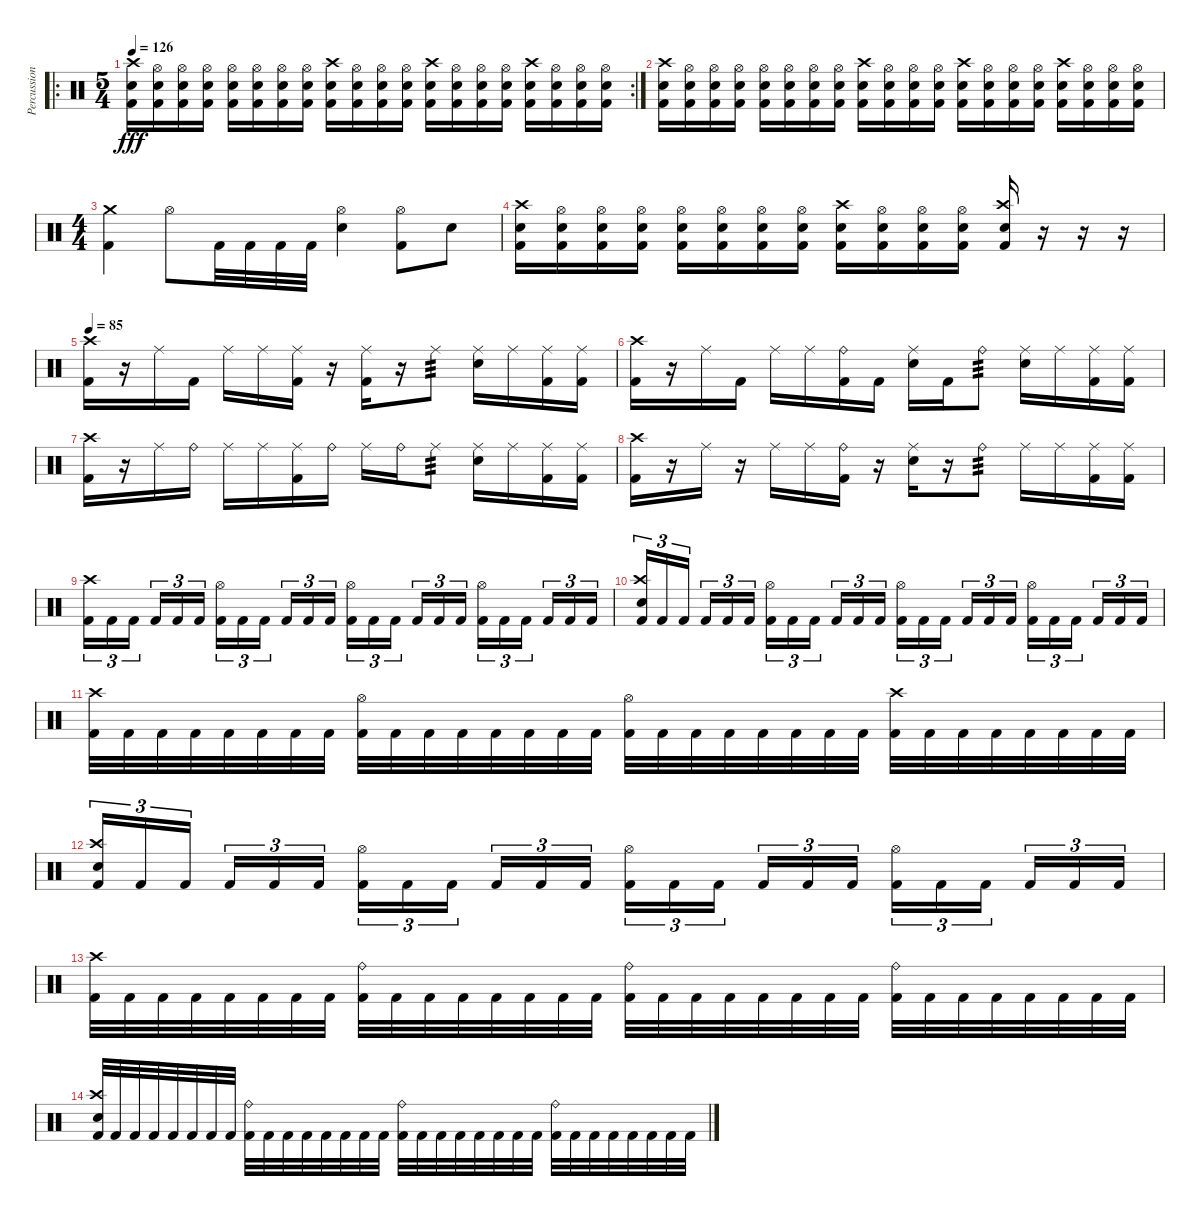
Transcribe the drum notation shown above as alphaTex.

\track ("Percussion" "Percussion") {instrument percussion}
\staff {score}
\articulation defaults
\ro
\rc 2
\ts (5 4)
\tempo 126
\clef neutral
\ks c
("Electric Snare (hit)" "Crash high (hit)" "Kick (hit) 2").16{dy fff} ("Electric Snare (hit)" "Hi-Hat (open)" "Kick (hit) 2").16 ("Electric Snare (hit)" "Hi-Hat (open)" "Kick (hit) 2").16 ("Electric Snare (hit)" "Hi-Hat (open)" "Kick (hit) 2").16 ("Electric Snare (hit)" "Hi-Hat (open)" "Kick (hit) 2").16 ("Electric Snare (hit)" "Hi-Hat (open)" "Kick (hit) 2").16 ("Electric Snare (hit)" "Hi-Hat (open)" "Kick (hit) 2").16 ("Electric Snare (hit)" "Hi-Hat (open)" "Kick (hit) 2").16 ("Electric Snare (hit)" "Crash high (hit)" "Kick (hit) 2").16 ("Electric Snare (hit)" "Hi-Hat (open)" "Kick (hit) 2").16 ("Electric Snare (hit)" "Hi-Hat (open)" "Kick (hit) 2").16 ("Electric Snare (hit)" "Hi-Hat (open)" "Kick (hit) 2").16 ("Electric Snare (hit)" "Crash high (hit)" "Kick (hit) 2").16 ("Electric Snare (hit)" "Hi-Hat (open)" "Kick (hit) 2").16 ("Electric Snare (hit)" "Hi-Hat (open)" "Kick (hit) 2").16 ("Electric Snare (hit)" "Hi-Hat (open)" "Kick (hit) 2").16 ("Electric Snare (hit)" "Crash high (hit)" "Kick (hit) 2").16 ("Electric Snare (hit)" "Hi-Hat (open)" "Kick (hit) 2").16 ("Electric Snare (hit)" "Hi-Hat (open)" "Kick (hit) 2").16 ("Electric Snare (hit)" "Hi-Hat (open)" "Kick (hit) 2").16 |
("Electric Snare (hit)" "Crash high (hit)" "Kick (hit) 2").16 ("Electric Snare (hit)" "Hi-Hat (open)" "Kick (hit) 2").16 ("Electric Snare (hit)" "Hi-Hat (open)" "Kick (hit) 2").16 ("Electric Snare (hit)" "Hi-Hat (open)" "Kick (hit) 2").16 ("Electric Snare (hit)" "Hi-Hat (open)" "Kick (hit) 2").16 ("Electric Snare (hit)" "Hi-Hat (open)" "Kick (hit) 2").16 ("Electric Snare (hit)" "Hi-Hat (open)" "Kick (hit) 2").16 ("Electric Snare (hit)" "Hi-Hat (open)" "Kick (hit) 2").16 ("Electric Snare (hit)" "Crash high (hit)" "Kick (hit) 2").16 ("Electric Snare (hit)" "Hi-Hat (open)" "Kick (hit) 2").16 ("Electric Snare (hit)" "Hi-Hat (open)" "Kick (hit) 2").16 ("Electric Snare (hit)" "Hi-Hat (open)" "Kick (hit) 2").16 ("Electric Snare (hit)" "Crash high (hit)" "Kick (hit) 2").16 ("Electric Snare (hit)" "Hi-Hat (open)" "Kick (hit) 2").16 ("Electric Snare (hit)" "Hi-Hat (open)" "Kick (hit) 2").16 ("Electric Snare (hit)" "Hi-Hat (open)" "Kick (hit) 2").16 ("Electric Snare (hit)" "Crash high (hit)" "Kick (hit) 2").16 ("Electric Snare (hit)" "Hi-Hat (open)" "Kick (hit) 2").16 ("Electric Snare (hit)" "Hi-Hat (open)" "Kick (hit) 2").16 ("Electric Snare (hit)" "Hi-Hat (open)" "Kick (hit) 2").16 |
\ts (4 4)
("Kick (hit) 2" "Crash medium (hit)").4 "Hi-Hat (open)".8 "Kick (hit) 2".32 "Kick (hit) 2".32 "Kick (hit) 2".32 "Kick (hit) 2".32 ("Electric Snare (hit)" "Hi-Hat (open)").4 ("Kick (hit) 2" "Hi-Hat (open)").8 "Electric Snare (hit)".8 |
("Electric Snare (hit)" "Crash high (hit)" "Kick (hit) 2").16 ("Electric Snare (hit)" "Hi-Hat (open)" "Kick (hit) 2").16 ("Electric Snare (hit)" "Hi-Hat (open)" "Kick (hit) 2").16 ("Electric Snare (hit)" "Hi-Hat (open)" "Kick (hit) 2").16 ("Electric Snare (hit)" "Hi-Hat (open)" "Kick (hit) 2").16 ("Electric Snare (hit)" "Hi-Hat (open)" "Kick (hit) 2").16 ("Electric Snare (hit)" "Hi-Hat (open)" "Kick (hit) 2").16 ("Electric Snare (hit)" "Hi-Hat (open)" "Kick (hit) 2").16 ("Electric Snare (hit)" "Crash high (hit)" "Kick (hit) 2").16 ("Electric Snare (hit)" "Hi-Hat (open)" "Kick (hit) 2").16 ("Electric Snare (hit)" "Hi-Hat (open)" "Kick (hit) 2").16 ("Electric Snare (hit)" "Hi-Hat (open)" "Kick (hit) 2").16 ("Electric Snare (hit)" "Crash high (hit)" "Kick (hit) 2").16 r.16 r.16 r.16 |
\tempo 85
("Crash high (hit)" "Kick (hit) 2").16 r.16 "Ride (middle)".16 "Kick (hit) 2".16 "Ride (middle)".16 "Ride (middle)".16 ("Ride (middle)" "Kick (hit) 2").16 r.16 ("Ride (middle)" "Kick (hit) 2").16 r.16 "Ride (middle)".8{tp 3} ("Ride (middle)" "Electric Snare (hit)").16 "Ride (middle)".16 ("Ride (middle)" "Kick (hit) 2").16 ("Ride (middle)" "Kick (hit) 2").16 |
("Crash high (hit)" "Kick (hit) 2").16 r.16 "Ride (middle)".16 "Kick (hit) 2".16 "Ride (middle)".16 "Ride (middle)".16 ("Ride (bell)" "Kick (hit) 2").16 "Kick (hit) 2".16 ("Ride (middle)" "Electric Snare (hit)").16 "Kick (hit) 2".16 "Ride (bell)".8{tp 3} ("Ride (middle)" "Electric Snare (hit)").16 "Ride (middle)".16 ("Ride (middle)" "Kick (hit) 2").16 ("Ride (middle)" "Kick (hit) 2").16 |
("Crash high (hit)" "Kick (hit) 2").16 r.16 "Ride (middle)".16 "Ride (bell)".16 "Ride (middle)".16 "Ride (middle)".16 ("Ride (middle)" "Kick (hit) 2").16 "Ride (bell)".16 "Ride (middle)".16 "Ride (bell)".16 "Ride (middle)".8{tp 3} ("Ride (middle)" "Electric Snare (hit)").16 "Ride (middle)".16 ("Ride (middle)" "Kick (hit) 2").16 ("Ride (middle)" "Kick (hit) 2").16 |
("Crash high (hit)" "Kick (hit) 2").16 r.16 "Ride (middle)".16 r.16 "Ride (middle)".16 "Ride (middle)".16 ("Ride (bell)" "Kick (hit) 2").16 r.16 ("Ride (middle)" "Electric Snare (hit)").16 r.16 "Ride (bell)".8{tp 3} "Ride (middle)".16 "Ride (middle)".16 ("Ride (middle)" "Kick (hit) 2").16 ("Ride (middle)" "Kick (hit) 2").16 |
("Crash high (hit)" "Kick (hit) 2").16{tu (3 2)} "Kick (hit) 2".16{tu (3 2)} "Kick (hit) 2".16{tu (3 2) beam splitsecondary} "Kick (hit) 2".16{tu (3 2)} "Kick (hit) 2".16{tu (3 2)} "Kick (hit) 2".16{tu (3 2)} ("Hi-Hat (open)" "Kick (hit) 2").16{tu (3 2)} "Kick (hit) 2".16{tu (3 2)} "Kick (hit) 2".16{tu (3 2) beam splitsecondary} "Kick (hit) 2".16{tu (3 2)} "Kick (hit) 2".16{tu (3 2)} "Kick (hit) 2".16{tu (3 2)} ("Hi-Hat (open)" "Kick (hit) 2").16{tu (3 2)} "Kick (hit) 2".16{tu (3 2)} "Kick (hit) 2".16{tu (3 2) beam splitsecondary} "Kick (hit) 2".16{tu (3 2)} "Kick (hit) 2".16{tu (3 2)} "Kick (hit) 2".16{tu (3 2)} ("Hi-Hat (open)" "Kick (hit) 2").16{tu (3 2)} "Kick (hit) 2".16{tu (3 2)} "Kick (hit) 2".16{tu (3 2) beam splitsecondary} "Kick (hit) 2".16{tu (3 2)} "Kick (hit) 2".16{tu (3 2)} "Kick (hit) 2".16{tu (3 2)} |
("Electric Snare (hit)" "Crash high (hit)" "Kick (hit) 2").16{tu (3 2)} "Kick (hit) 2".16{tu (3 2)} "Kick (hit) 2".16{tu (3 2) beam splitsecondary} "Kick (hit) 2".16{tu (3 2)} "Kick (hit) 2".16{tu (3 2)} "Kick (hit) 2".16{tu (3 2)} ("Hi-Hat (open)" "Kick (hit) 2").16{tu (3 2)} "Kick (hit) 2".16{tu (3 2)} "Kick (hit) 2".16{tu (3 2) beam splitsecondary} "Kick (hit) 2".16{tu (3 2)} "Kick (hit) 2".16{tu (3 2)} "Kick (hit) 2".16{tu (3 2)} ("Hi-Hat (open)" "Kick (hit) 2").16{tu (3 2)} "Kick (hit) 2".16{tu (3 2)} "Kick (hit) 2".16{tu (3 2) beam splitsecondary} "Kick (hit) 2".16{tu (3 2)} "Kick (hit) 2".16{tu (3 2)} "Kick (hit) 2".16{tu (3 2)} ("Hi-Hat (open)" "Kick (hit) 2").16{tu (3 2)} "Kick (hit) 2".16{tu (3 2)} "Kick (hit) 2".16{tu (3 2) beam splitsecondary} "Kick (hit) 2".16{tu (3 2)} "Kick (hit) 2".16{tu (3 2)} "Kick (hit) 2".16{tu (3 2)} |
("Crash high (hit)" "Kick (hit) 2").32 "Kick (hit) 2".32 "Kick (hit) 2".32 "Kick (hit) 2".32 "Kick (hit) 2".32 "Kick (hit) 2".32 "Kick (hit) 2".32 "Kick (hit) 2".32 ("Hi-Hat (open)" "Kick (hit) 2").32 "Kick (hit) 2".32 "Kick (hit) 2".32 "Kick (hit) 2".32 "Kick (hit) 2".32 "Kick (hit) 2".32 "Kick (hit) 2".32 "Kick (hit) 2".32 ("Hi-Hat (open)" "Kick (hit) 2").32 "Kick (hit) 2".32 "Kick (hit) 2".32 "Kick (hit) 2".32 "Kick (hit) 2".32 "Kick (hit) 2".32 "Kick (hit) 2".32 "Kick (hit) 2".32 ("Crash high (hit)" "Kick (hit) 2").32 "Kick (hit) 2".32 "Kick (hit) 2".32 "Kick (hit) 2".32 "Kick (hit) 2".32 "Kick (hit) 2".32 "Kick (hit) 2".32 "Kick (hit) 2".32 |
("Electric Snare (hit)" "Crash high (hit)" "Kick (hit) 2").16{tu (3 2)} "Kick (hit) 2".16{tu (3 2)} "Kick (hit) 2".16{tu (3 2) beam splitsecondary} "Kick (hit) 2".16{tu (3 2)} "Kick (hit) 2".16{tu (3 2)} "Kick (hit) 2".16{tu (3 2)} ("Hi-Hat (open)" "Kick (hit) 2").16{tu (3 2)} "Kick (hit) 2".16{tu (3 2)} "Kick (hit) 2".16{tu (3 2) beam splitsecondary} "Kick (hit) 2".16{tu (3 2)} "Kick (hit) 2".16{tu (3 2)} "Kick (hit) 2".16{tu (3 2)} ("Hi-Hat (open)" "Kick (hit) 2").16{tu (3 2)} "Kick (hit) 2".16{tu (3 2)} "Kick (hit) 2".16{tu (3 2) beam splitsecondary} "Kick (hit) 2".16{tu (3 2)} "Kick (hit) 2".16{tu (3 2)} "Kick (hit) 2".16{tu (3 2)} ("Hi-Hat (open)" "Kick (hit) 2").16{tu (3 2)} "Kick (hit) 2".16{tu (3 2)} "Kick (hit) 2".16{tu (3 2) beam splitsecondary} "Kick (hit) 2".16{tu (3 2)} "Kick (hit) 2".16{tu (3 2)} "Kick (hit) 2".16{tu (3 2)} |
("Crash high (hit)" "Kick (hit) 2").32{volume 0} "Kick (hit) 2".32 "Kick (hit) 2".32 "Kick (hit) 2".32 "Kick (hit) 2".32 "Kick (hit) 2".32 "Kick (hit) 2".32 "Kick (hit) 2".32 ("Ride (bell)" "Kick (hit) 2").32 "Kick (hit) 2".32 "Kick (hit) 2".32 "Kick (hit) 2".32 "Kick (hit) 2".32 "Kick (hit) 2".32 "Kick (hit) 2".32 "Kick (hit) 2".32 ("Ride (bell)" "Kick (hit) 2").32 "Kick (hit) 2".32 "Kick (hit) 2".32 "Kick (hit) 2".32 "Kick (hit) 2".32 "Kick (hit) 2".32 "Kick (hit) 2".32 "Kick (hit) 2".32 ("Ride (bell)" "Kick (hit) 2").32 "Kick (hit) 2".32 "Kick (hit) 2".32 "Kick (hit) 2".32 "Kick (hit) 2".32 "Kick (hit) 2".32 "Kick (hit) 2".32 "Kick (hit) 2".32 |
("Electric Snare (hit)" "Crash high (hit)" "Kick (hit) 2").32 "Kick (hit) 2".32 "Kick (hit) 2".32 "Kick (hit) 2".32 "Kick (hit) 2".32 "Kick (hit) 2".32 "Kick (hit) 2".32 "Kick (hit) 2".32 ("Ride (bell)" "Kick (hit) 2").32 "Kick (hit) 2".32 "Kick (hit) 2".32 "Kick (hit) 2".32 "Kick (hit) 2".32 "Kick (hit) 2".32 "Kick (hit) 2".32 "Kick (hit) 2".32 ("Ride (bell)" "Kick (hit) 2").32 "Kick (hit) 2".32 "Kick (hit) 2".32 "Kick (hit) 2".32 "Kick (hit) 2".32 "Kick (hit) 2".32 "Kick (hit) 2".32 "Kick (hit) 2".32 ("Ride (bell)" "Kick (hit) 2").32 "Kick (hit) 2".32 "Kick (hit) 2".32 "Kick (hit) 2".32 "Kick (hit) 2".32 "Kick (hit) 2".32 "Kick (hit) 2".32 "Kick (hit) 2".32
